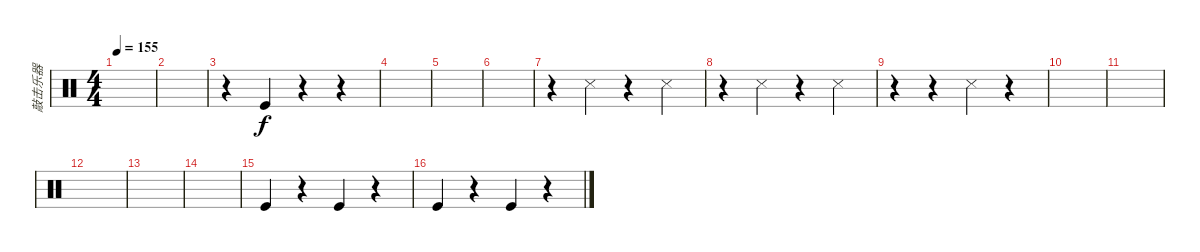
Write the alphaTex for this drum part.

\track ("敲击乐器" "敲击乐器") {instrument percussion}
\staff {score}
\articulation defaults
\ts (4 4)
\tempo 155
\clef neutral
\ks c
|
|
r.4 "Kick (hit)".4 r.4 r.4 |
|
|
|
r.4 "Snare (side stick) 3".4 r.4 "Snare (side stick) 3".4 |
r.4 "Snare (side stick) 3".4 r.4 "Snare (side stick) 3".4 |
r.4 r.4 "Snare (side stick) 3".4 r.4 |
|
|
|
|
|
"Kick (hit)".4 r.4 "Kick (hit)".4 r.4 |
"Kick (hit)".4 r.4 "Kick (hit)".4 r.4
